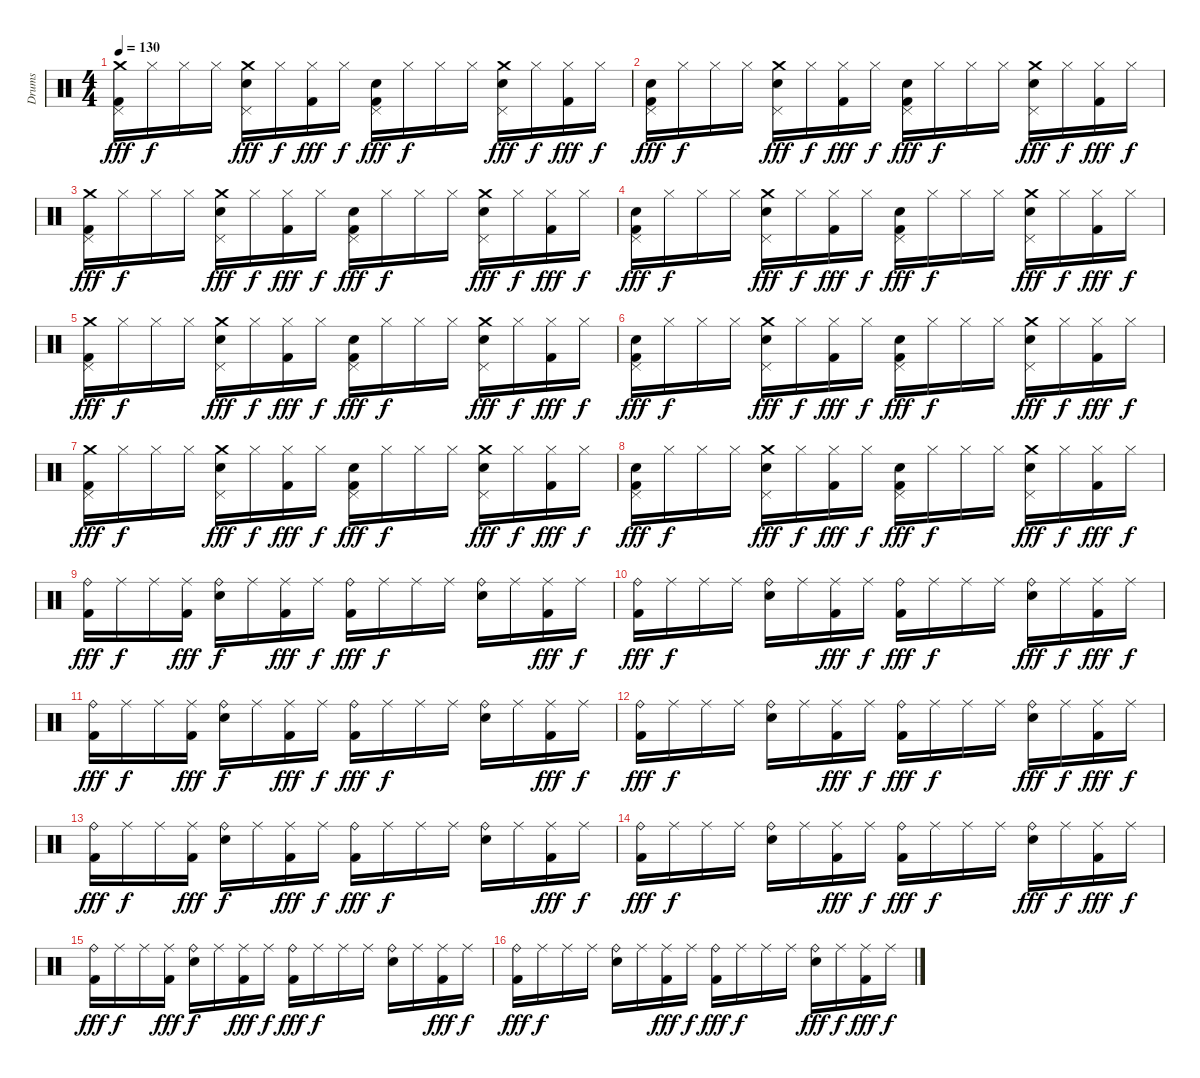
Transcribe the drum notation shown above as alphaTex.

\track ("Drums" "Drums") {instrument percussion}
\staff {score}
\articulation defaults
\ts (4 4)
\tempo 130
\clef neutral
\ks c
("Pedal Hi-Hat (hit)" "Crash medium (hit)" "Kick (hit) 2").16{dy fff} "Hi-Hat (closed)".16{dy f} "Hi-Hat (closed)".16 "Hi-Hat (closed)".16 ("Electric Snare (hit)" "Pedal Hi-Hat (hit)" "Crash medium (hit)").16{dy fff} "Hi-Hat (closed)".16{dy f} ("Hi-Hat (closed)" "Kick (hit) 2").16{dy fff} "Hi-Hat (closed)".16{dy f} ("Electric Snare (hit)" "Pedal Hi-Hat (hit)" "Kick (hit) 2").16{dy fff} "Hi-Hat (closed)".16{dy f} "Hi-Hat (closed)".16 "Hi-Hat (closed)".16 ("Electric Snare (hit)" "Pedal Hi-Hat (hit)" "Crash medium (hit)").16{dy fff} "Hi-Hat (closed)".16{dy f} ("Hi-Hat (closed)" "Kick (hit) 2").16{dy fff} "Hi-Hat (closed)".16{dy f} |
("Electric Snare (hit)" "Pedal Hi-Hat (hit)" "Kick (hit) 2").16{dy fff} "Hi-Hat (closed)".16{dy f} "Hi-Hat (closed)".16 "Hi-Hat (closed)".16 ("Electric Snare (hit)" "Pedal Hi-Hat (hit)" "Crash medium (hit)").16{dy fff} "Hi-Hat (closed)".16{dy f} ("Hi-Hat (closed)" "Kick (hit) 2").16{dy fff} "Hi-Hat (closed)".16{dy f} ("Electric Snare (hit)" "Pedal Hi-Hat (hit)" "Kick (hit) 2").16{dy fff} "Hi-Hat (closed)".16{dy f} "Hi-Hat (closed)".16 "Hi-Hat (closed)".16 ("Electric Snare (hit)" "Pedal Hi-Hat (hit)" "Crash medium (hit)").16{dy fff} "Hi-Hat (closed)".16{dy f} ("Hi-Hat (closed)" "Kick (hit) 2").16{dy fff} "Hi-Hat (closed)".16{dy f} |
("Pedal Hi-Hat (hit)" "Crash medium (hit)" "Kick (hit) 2").16{dy fff} "Hi-Hat (closed)".16{dy f} "Hi-Hat (closed)".16 "Hi-Hat (closed)".16 ("Electric Snare (hit)" "Pedal Hi-Hat (hit)" "Crash medium (hit)").16{dy fff} "Hi-Hat (closed)".16{dy f} ("Hi-Hat (closed)" "Kick (hit) 2").16{dy fff} "Hi-Hat (closed)".16{dy f} ("Electric Snare (hit)" "Pedal Hi-Hat (hit)" "Kick (hit) 2").16{dy fff} "Hi-Hat (closed)".16{dy f} "Hi-Hat (closed)".16 "Hi-Hat (closed)".16 ("Electric Snare (hit)" "Pedal Hi-Hat (hit)" "Crash medium (hit)").16{dy fff} "Hi-Hat (closed)".16{dy f} ("Hi-Hat (closed)" "Kick (hit) 2").16{dy fff} "Hi-Hat (closed)".16{dy f} |
("Electric Snare (hit)" "Pedal Hi-Hat (hit)" "Kick (hit) 2").16{dy fff} "Hi-Hat (closed)".16{dy f} "Hi-Hat (closed)".16 "Hi-Hat (closed)".16 ("Electric Snare (hit)" "Pedal Hi-Hat (hit)" "Crash medium (hit)").16{dy fff} "Hi-Hat (closed)".16{dy f} ("Hi-Hat (closed)" "Kick (hit) 2").16{dy fff} "Hi-Hat (closed)".16{dy f} ("Electric Snare (hit)" "Pedal Hi-Hat (hit)" "Kick (hit) 2").16{dy fff} "Hi-Hat (closed)".16{dy f} "Hi-Hat (closed)".16 "Hi-Hat (closed)".16 ("Electric Snare (hit)" "Pedal Hi-Hat (hit)" "Crash medium (hit)").16{dy fff} "Hi-Hat (closed)".16{dy f} ("Hi-Hat (closed)" "Kick (hit) 2").16{dy fff} "Hi-Hat (closed)".16{dy f} |
("Pedal Hi-Hat (hit)" "Crash medium (hit)" "Kick (hit) 2").16{dy fff} "Hi-Hat (closed)".16{dy f} "Hi-Hat (closed)".16 "Hi-Hat (closed)".16 ("Electric Snare (hit)" "Pedal Hi-Hat (hit)" "Crash medium (hit)").16{dy fff} "Hi-Hat (closed)".16{dy f} ("Hi-Hat (closed)" "Kick (hit) 2").16{dy fff} "Hi-Hat (closed)".16{dy f} ("Electric Snare (hit)" "Pedal Hi-Hat (hit)" "Kick (hit) 2").16{dy fff} "Hi-Hat (closed)".16{dy f} "Hi-Hat (closed)".16 "Hi-Hat (closed)".16 ("Electric Snare (hit)" "Pedal Hi-Hat (hit)" "Crash medium (hit)").16{dy fff} "Hi-Hat (closed)".16{dy f} ("Hi-Hat (closed)" "Kick (hit) 2").16{dy fff} "Hi-Hat (closed)".16{dy f} |
("Electric Snare (hit)" "Pedal Hi-Hat (hit)" "Kick (hit) 2").16{dy fff} "Hi-Hat (closed)".16{dy f} "Hi-Hat (closed)".16 "Hi-Hat (closed)".16 ("Electric Snare (hit)" "Pedal Hi-Hat (hit)" "Crash medium (hit)").16{dy fff} "Hi-Hat (closed)".16{dy f} ("Hi-Hat (closed)" "Kick (hit) 2").16{dy fff} "Hi-Hat (closed)".16{dy f} ("Electric Snare (hit)" "Pedal Hi-Hat (hit)" "Kick (hit) 2").16{dy fff} "Hi-Hat (closed)".16{dy f} "Hi-Hat (closed)".16 "Hi-Hat (closed)".16 ("Electric Snare (hit)" "Pedal Hi-Hat (hit)" "Crash medium (hit)").16{dy fff} "Hi-Hat (closed)".16{dy f} ("Hi-Hat (closed)" "Kick (hit) 2").16{dy fff} "Hi-Hat (closed)".16{dy f} |
("Pedal Hi-Hat (hit)" "Crash medium (hit)" "Kick (hit) 2").16{dy fff} "Hi-Hat (closed)".16{dy f} "Hi-Hat (closed)".16 "Hi-Hat (closed)".16 ("Electric Snare (hit)" "Pedal Hi-Hat (hit)" "Crash medium (hit)").16{dy fff} "Hi-Hat (closed)".16{dy f} ("Hi-Hat (closed)" "Kick (hit) 2").16{dy fff} "Hi-Hat (closed)".16{dy f} ("Electric Snare (hit)" "Pedal Hi-Hat (hit)" "Kick (hit) 2").16{dy fff} "Hi-Hat (closed)".16{dy f} "Hi-Hat (closed)".16 "Hi-Hat (closed)".16 ("Electric Snare (hit)" "Pedal Hi-Hat (hit)" "Crash medium (hit)").16{dy fff} "Hi-Hat (closed)".16{dy f} ("Hi-Hat (closed)" "Kick (hit) 2").16{dy fff} "Hi-Hat (closed)".16{dy f} |
("Electric Snare (hit)" "Pedal Hi-Hat (hit)" "Kick (hit) 2").16{dy fff} "Hi-Hat (closed)".16{dy f} "Hi-Hat (closed)".16 "Hi-Hat (closed)".16 ("Electric Snare (hit)" "Pedal Hi-Hat (hit)" "Crash medium (hit)").16{dy fff} "Hi-Hat (closed)".16{dy f} ("Hi-Hat (closed)" "Kick (hit) 2").16{dy fff} "Hi-Hat (closed)".16{dy f} ("Electric Snare (hit)" "Pedal Hi-Hat (hit)" "Kick (hit) 2").16{dy fff} "Hi-Hat (closed)".16{dy f} "Hi-Hat (closed)".16 "Hi-Hat (closed)".16 ("Electric Snare (hit)" "Pedal Hi-Hat (hit)" "Crash medium (hit)").16{dy fff} "Hi-Hat (closed)".16{dy f} ("Hi-Hat (closed)" "Kick (hit) 2").16{dy fff} "Hi-Hat (closed)".16{dy f} |
("Ride (bell)" "Kick (hit) 2").16{dy fff} "Ride (middle)".16{dy f} "Ride (middle)".16 ("Ride (middle)" "Kick (hit) 2").16{dy fff} ("Ride (bell)" "Electric Snare (hit)").16{dy f} "Ride (middle)".16 ("Ride (middle)" "Kick (hit) 2").16{dy fff} "Ride (middle)".16{dy f} ("Ride (bell)" "Kick (hit) 2").16{dy fff} "Ride (middle)".16{dy f} "Ride (middle)".16 "Ride (middle)".16 ("Ride (bell)" "Electric Snare (hit)").16 "Ride (middle)".16 ("Ride (middle)" "Kick (hit) 2").16{dy fff} "Ride (middle)".16{dy f} |
("Ride (bell)" "Kick (hit) 2").16{dy fff} "Ride (middle)".16{dy f} "Ride (middle)".16 "Ride (middle)".16 ("Ride (bell)" "Electric Snare (hit)").16 "Ride (middle)".16 ("Ride (middle)" "Kick (hit) 2").16{dy fff} "Ride (middle)".16{dy f} ("Ride (bell)" "Kick (hit) 2").16{dy fff} "Ride (middle)".16{dy f} "Ride (middle)".16 "Ride (middle)".16 ("Ride (bell)" "Hand Clap (hit)").16{dy fff} "Ride (middle)".16{dy f} ("Ride (middle)" "Kick (hit) 2").16{dy fff} "Ride (middle)".16{dy f} |
("Ride (bell)" "Kick (hit) 2").16{dy fff} "Ride (middle)".16{dy f} "Ride (middle)".16 ("Ride (middle)" "Kick (hit) 2").16{dy fff} ("Ride (bell)" "Electric Snare (hit)").16{dy f} "Ride (middle)".16 ("Ride (middle)" "Kick (hit) 2").16{dy fff} "Ride (middle)".16{dy f} ("Ride (bell)" "Kick (hit) 2").16{dy fff} "Ride (middle)".16{dy f} "Ride (middle)".16 "Ride (middle)".16 ("Ride (bell)" "Electric Snare (hit)").16 "Ride (middle)".16 ("Ride (middle)" "Kick (hit) 2").16{dy fff} "Ride (middle)".16{dy f} |
("Ride (bell)" "Kick (hit) 2").16{dy fff} "Ride (middle)".16{dy f} "Ride (middle)".16 "Ride (middle)".16 ("Ride (bell)" "Electric Snare (hit)").16 "Ride (middle)".16 ("Ride (middle)" "Kick (hit) 2").16{dy fff} "Ride (middle)".16{dy f} ("Ride (bell)" "Kick (hit) 2").16{dy fff} "Ride (middle)".16{dy f} "Ride (middle)".16 "Ride (middle)".16 ("Ride (bell)" "Hand Clap (hit)").16{dy fff} "Ride (middle)".16{dy f} ("Ride (middle)" "Kick (hit) 2").16{dy fff} "Ride (middle)".16{dy f} |
("Ride (bell)" "Kick (hit) 2").16{dy fff} "Ride (middle)".16{dy f} "Ride (middle)".16 ("Ride (middle)" "Kick (hit) 2").16{dy fff} ("Ride (bell)" "Electric Snare (hit)").16{dy f} "Ride (middle)".16 ("Ride (middle)" "Kick (hit) 2").16{dy fff} "Ride (middle)".16{dy f} ("Ride (bell)" "Kick (hit) 2").16{dy fff} "Ride (middle)".16{dy f} "Ride (middle)".16 "Ride (middle)".16 ("Ride (bell)" "Electric Snare (hit)").16 "Ride (middle)".16 ("Ride (middle)" "Kick (hit) 2").16{dy fff} "Ride (middle)".16{dy f} |
("Ride (bell)" "Kick (hit) 2").16{dy fff} "Ride (middle)".16{dy f} "Ride (middle)".16 "Ride (middle)".16 ("Ride (bell)" "Electric Snare (hit)").16 "Ride (middle)".16 ("Ride (middle)" "Kick (hit) 2").16{dy fff} "Ride (middle)".16{dy f} ("Ride (bell)" "Kick (hit) 2").16{dy fff} "Ride (middle)".16{dy f} "Ride (middle)".16 "Ride (middle)".16 ("Ride (bell)" "Hand Clap (hit)").16{dy fff} "Ride (middle)".16{dy f} ("Ride (middle)" "Kick (hit) 2").16{dy fff} "Ride (middle)".16{dy f} |
("Ride (bell)" "Kick (hit) 2").16{dy fff} "Ride (middle)".16{dy f} "Ride (middle)".16 ("Ride (middle)" "Kick (hit) 2").16{dy fff} ("Ride (bell)" "Electric Snare (hit)").16{dy f} "Ride (middle)".16 ("Ride (middle)" "Kick (hit) 2").16{dy fff} "Ride (middle)".16{dy f} ("Ride (bell)" "Kick (hit) 2").16{dy fff} "Ride (middle)".16{dy f} "Ride (middle)".16 "Ride (middle)".16 ("Ride (bell)" "Electric Snare (hit)").16 "Ride (middle)".16 ("Ride (middle)" "Kick (hit) 2").16{dy fff} "Ride (middle)".16{dy f} |
("Ride (bell)" "Kick (hit) 2").16{dy fff} "Ride (middle)".16{dy f} "Ride (middle)".16 "Ride (middle)".16 ("Ride (bell)" "Electric Snare (hit)").16 "Ride (middle)".16 ("Ride (middle)" "Kick (hit) 2").16{dy fff} "Ride (middle)".16{dy f} ("Ride (bell)" "Kick (hit) 2").16{dy fff} "Ride (middle)".16{dy f} "Ride (middle)".16 "Ride (middle)".16 ("Ride (bell)" "Hand Clap (hit)").16{dy fff} "Ride (middle)".16{dy f} ("Ride (middle)" "Kick (hit) 2").16{dy fff} "Ride (middle)".16{dy f}
